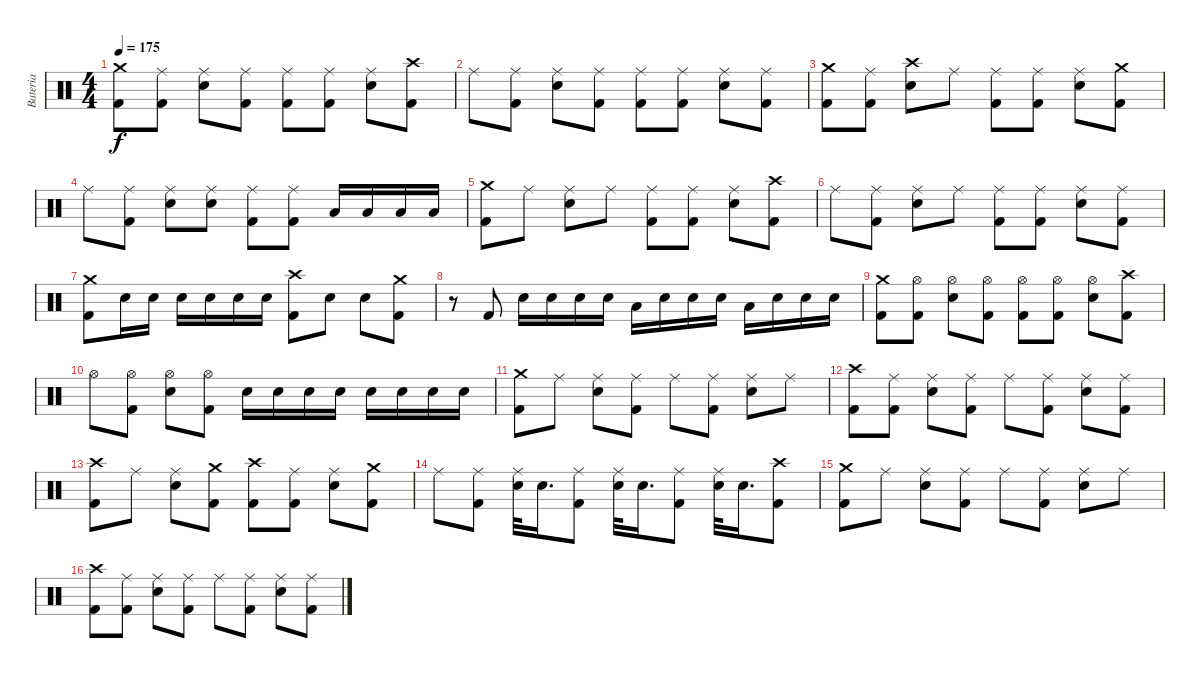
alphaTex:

\track ("Bateria" "Bateria") {instrument percussion}
\staff {score}
\articulation defaults
\ts (4 4)
\tempo 175
\clef neutral
\ks c
("Kick (hit) 2" "Crash medium (hit)").8{dy f} ("Kick (hit) 2" "Ride (middle)").8 ("Snare (hit) 2" "Ride (middle)").8 ("Kick (hit) 2" "Ride (middle)").8 ("Kick (hit) 2" "Ride (middle)").8 ("Kick (hit) 2" "Ride (middle)").8 ("Snare (hit) 2" "Ride (middle)").8 ("Kick (hit) 2" "Crash high (hit)").8 |
"Ride (middle)".8 ("Kick (hit) 2" "Ride (middle)").8 ("Snare (hit) 2" "Ride (middle)").8 ("Kick (hit) 2" "Ride (middle)").8 ("Kick (hit) 2" "Ride (middle)").8 ("Kick (hit) 2" "Ride (middle)").8 ("Snare (hit) 2" "Ride (middle)").8 ("Kick (hit) 2" "Ride (middle)").8 |
("Kick (hit) 2" "Crash medium (hit)").8 ("Kick (hit) 2" "Ride (middle)").8 ("Snare (hit) 2" "Crash high (hit)").8 "Ride (middle)".8 ("Kick (hit) 2" "Ride (middle)").8 ("Kick (hit) 2" "Ride (middle)").8 ("Snare (hit) 2" "Ride (middle)").8 ("Kick (hit) 2" "Crash medium (hit)").8 |
"Ride (middle)".8 ("Kick (hit) 2" "Ride (middle)").8 ("Snare (hit) 2" "Ride (middle)").8 ("Snare (hit) 2" "Ride (middle)").8 ("Kick (hit) 2" "Ride (middle)").8 ("Kick (hit) 2" "Ride (middle)").8 "Low Tom (hit)".16 "Low Tom (hit)".16 "Low Tom (hit)".16 "Low Tom (hit)".16 |
("Kick (hit) 2" "Crash medium (hit)").8 "Ride (middle)".8 ("Snare (hit) 2" "Ride (middle)").8 "Ride (middle)".8 ("Kick (hit) 2" "Ride (middle)").8 ("Kick (hit) 2" "Ride (middle)").8 ("Snare (hit) 2" "Ride (middle)").8 ("Kick (hit) 2" "Crash high (hit)").8 |
"Ride (middle)".8 ("Kick (hit) 2" "Ride (middle)").8 ("Snare (hit) 2" "Ride (middle)").8 "Ride (middle)".8 ("Kick (hit) 2" "Ride (middle)").8 ("Kick (hit) 2" "Ride (middle)").8 ("Snare (hit) 2" "Ride (middle)").8 ("Kick (hit) 2" "Ride (middle)").8 |
("Kick (hit) 2" "Crash medium (hit)").8 "Snare (hit) 2".16 "Snare (hit) 2".16 "Snare (hit) 2".16 "Snare (hit) 2".16 "Snare (hit) 2".16 "Snare (hit) 2".16 ("Kick (hit) 2" "Crash high (hit)").8 "Snare (hit) 2".8 "Snare (hit) 2".8 ("Kick (hit) 2" "Crash medium (hit)").8 |
r.8 "Kick (hit) 2".8 "Snare (hit) 2".16 "Snare (hit) 2".16 "Snare (hit) 2".16 "Snare (hit) 2".16 "Low Tom (hit)".16 "Snare (hit) 2".16 "Snare (hit) 2".16 "Snare (hit) 2".16 "Low Tom (hit)".16 "Snare (hit) 2".16 "Snare (hit) 2".16 "Snare (hit) 2".16 |
("Kick (hit) 2" "Crash medium (hit)").8 ("Kick (hit) 2" "Hi-Hat (open)").8 ("Snare (hit) 2" "Hi-Hat (open)").8 ("Kick (hit) 2" "Hi-Hat (open)").8 ("Kick (hit) 2" "Hi-Hat (open)").8 ("Kick (hit) 2" "Hi-Hat (open)").8 ("Snare (hit) 2" "Hi-Hat (open)").8 ("Kick (hit) 2" "Crash high (hit)").8 |
"Hi-Hat (open)".8 ("Kick (hit) 2" "Hi-Hat (open)").8 ("Snare (hit) 2" "Hi-Hat (open)").8 ("Kick (hit) 2" "Hi-Hat (open)").8 "Snare (hit) 2".16 "Snare (hit) 2".16 "Snare (hit) 2".16 "Snare (hit) 2".16 "Snare (hit) 2".16 "Snare (hit) 2".16 "Snare (hit) 2".16 "Snare (hit) 2".16 |
("Kick (hit) 2" "Crash medium (hit)").8 "Ride (middle)".8 ("Snare (hit) 2" "Ride (middle)").8 ("Kick (hit) 2" "Ride (middle)").8 "Ride (middle)".8 ("Kick (hit) 2" "Ride (middle)").8 ("Snare (hit) 2" "Ride (middle)").8 "Ride (middle)".8 |
("Kick (hit) 2" "Crash high (hit)").8 ("Kick (hit) 2" "Ride (middle)").8 ("Snare (hit) 2" "Ride (middle)").8 ("Kick (hit) 2" "Ride (middle)").8 "Ride (middle)".8 ("Kick (hit) 2" "Ride (middle)").8 ("Snare (hit) 2" "Ride (middle)").8 ("Kick (hit) 2" "Ride (middle)").8 |
("Kick (hit) 2" "Crash high (hit)").8 "Ride (middle)".8 ("Snare (hit) 2" "Ride (middle)").8 ("Kick (hit) 2" "Crash medium (hit)").8 ("Kick (hit) 2" "Crash high (hit)").8 ("Kick (hit) 2" "Ride (middle)").8 ("Snare (hit) 2" "Ride (middle)").8 ("Kick (hit) 2" "Crash medium (hit)").8 |
"Ride (middle)".8 ("Kick (hit) 2" "Ride (middle)").8 ("Snare (hit) 2" "Ride (middle)").32 "Snare (hit) 2".16{d} ("Kick (hit) 2" "Ride (middle)").8 ("Snare (hit) 2" "Ride (middle)").32 "Snare (hit) 2".16{d} ("Kick (hit) 2" "Ride (middle)").8 ("Snare (hit) 2" "Ride (middle)").32 "Snare (hit) 2".16{d} ("Kick (hit) 2" "Crash high (hit)").8 |
("Kick (hit) 2" "Crash medium (hit)").8 "Ride (middle)".8 ("Snare (hit) 2" "Ride (middle)").8 ("Kick (hit) 2" "Ride (middle)").8 "Ride (middle)".8 ("Kick (hit) 2" "Ride (middle)").8 ("Snare (hit) 2" "Ride (middle)").8 "Ride (middle)".8 |
("Kick (hit) 2" "Crash high (hit)").8 ("Kick (hit) 2" "Ride (middle)").8 ("Snare (hit) 2" "Ride (middle)").8 ("Kick (hit) 2" "Ride (middle)").8 "Ride (middle)".8 ("Kick (hit) 2" "Ride (middle)").8 ("Snare (hit) 2" "Ride (middle)").8 ("Kick (hit) 2" "Ride (middle)").8
